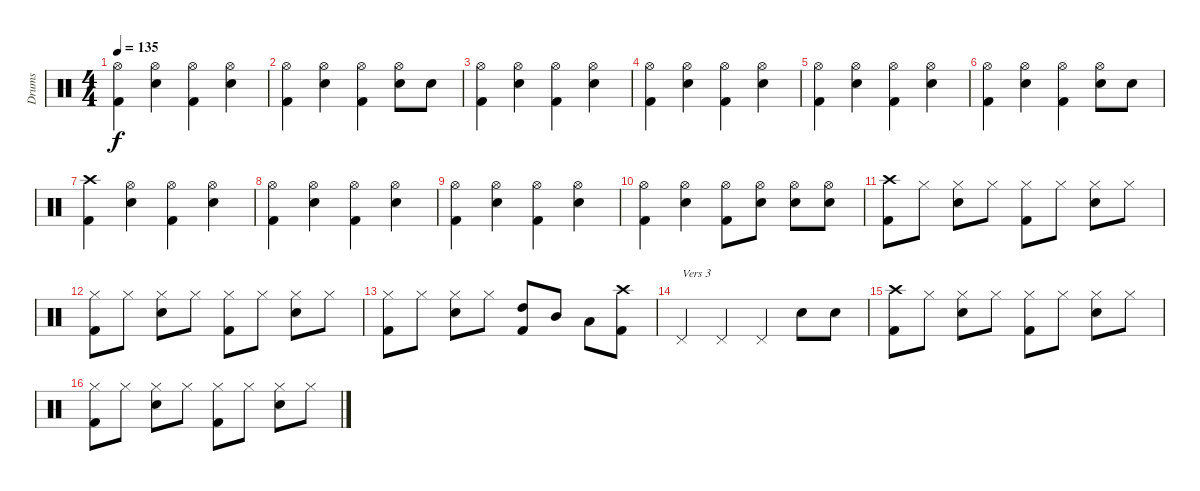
\track ("Drums" "Drums") {instrument percussion}
\staff {score}
\articulation defaults
\ts (4 4)
\tempo 135
\clef neutral
\ks c
("Hi-Hat (open)" "Kick (hit) 2").4{dy f} ("Hi-Hat (open)" "Snare (hit) 2").4 ("Hi-Hat (open)" "Kick (hit) 2").4 ("Hi-Hat (open)" "Snare (hit) 2").4 |
("Hi-Hat (open)" "Kick (hit) 2").4 ("Hi-Hat (open)" "Snare (hit) 2").4 ("Hi-Hat (open)" "Kick (hit) 2").4 ("Hi-Hat (open)" "Snare (hit) 2").8 "Snare (hit) 2".8 |
("Hi-Hat (open)" "Kick (hit) 2").4 ("Hi-Hat (open)" "Snare (hit) 2").4 ("Hi-Hat (open)" "Kick (hit) 2").4 ("Hi-Hat (open)" "Snare (hit) 2").4 |
("Hi-Hat (open)" "Kick (hit) 2").4 ("Hi-Hat (open)" "Snare (hit) 2").4 ("Hi-Hat (open)" "Kick (hit) 2").4 ("Hi-Hat (open)" "Snare (hit) 2").4 |
("Hi-Hat (open)" "Kick (hit) 2").4 ("Hi-Hat (open)" "Snare (hit) 2").4 ("Hi-Hat (open)" "Kick (hit) 2").4 ("Hi-Hat (open)" "Snare (hit) 2").4 |
("Hi-Hat (open)" "Kick (hit) 2").4 ("Hi-Hat (open)" "Snare (hit) 2").4 ("Hi-Hat (open)" "Kick (hit) 2").4 ("Hi-Hat (open)" "Snare (hit) 2").8 "Snare (hit) 2".8 |
("Crash high (hit)" "Kick (hit) 2").4 ("Hi-Hat (open)" "Snare (hit) 2").4 ("Hi-Hat (open)" "Kick (hit) 2").4 ("Hi-Hat (open)" "Snare (hit) 2").4 |
("Hi-Hat (open)" "Kick (hit) 2").4 ("Hi-Hat (open)" "Snare (hit) 2").4 ("Hi-Hat (open)" "Kick (hit) 2").4 ("Hi-Hat (open)" "Snare (hit) 2").4 |
("Hi-Hat (open)" "Kick (hit) 2").4 ("Hi-Hat (open)" "Snare (hit) 2").4 ("Hi-Hat (open)" "Kick (hit) 2").4 ("Hi-Hat (open)" "Snare (hit) 2").4 |
("Hi-Hat (open)" "Kick (hit) 2").4 ("Hi-Hat (open)" "Snare (hit) 2").4 ("Hi-Hat (open)" "Kick (hit) 2").8 ("Hi-Hat (open)" "Snare (hit) 2").8 ("Hi-Hat (open)" "Snare (hit) 2").8 ("Hi-Hat (open)" "Snare (hit) 2").8 |
("Crash high (hit)" "Kick (hit) 2").8 "Hi-Hat (closed)".8 ("Hi-Hat (closed)" "Snare (hit) 2").8 "Hi-Hat (closed)".8 ("Hi-Hat (closed)" "Kick (hit) 2").8 "Hi-Hat (closed)".8 ("Hi-Hat (closed)" "Snare (hit) 2").8 "Hi-Hat (closed)".8 |
("Hi-Hat (closed)" "Kick (hit) 2").8 "Hi-Hat (closed)".8 ("Hi-Hat (closed)" "Snare (hit) 2").8 "Hi-Hat (closed)".8 ("Hi-Hat (closed)" "Kick (hit) 2").8 "Hi-Hat (closed)".8 ("Hi-Hat (closed)" "Snare (hit) 2").8 "Hi-Hat (closed)".8 |
("Hi-Hat (closed)" "Kick (hit) 2").8 "Hi-Hat (closed)".8 ("Hi-Hat (closed)" "Snare (hit) 2").8 "Hi-Hat (closed)".8 ("High Tom (hit)" "Kick (hit) 2").8 "Mid Tom (hit)".8 "Low Tom (hit)".8 ("Crash high (hit)" "Kick (hit) 2").8 |
"Pedal Hi-Hat (hit)".4{txt "Vers 3"} "Pedal Hi-Hat (hit)".4 "Pedal Hi-Hat (hit)".4 "Snare (hit) 2".8 "Snare (hit) 2".8 |
("Crash high (hit)" "Kick (hit) 2").8 "Hi-Hat (closed)".8 ("Hi-Hat (closed)" "Snare (hit) 2").8 "Hi-Hat (closed)".8 ("Hi-Hat (closed)" "Kick (hit) 2").8 "Hi-Hat (closed)".8 ("Hi-Hat (closed)" "Snare (hit) 2").8 "Hi-Hat (closed)".8 |
("Hi-Hat (closed)" "Kick (hit) 2").8 "Hi-Hat (closed)".8 ("Hi-Hat (closed)" "Snare (hit) 2").8 "Hi-Hat (closed)".8 ("Hi-Hat (closed)" "Kick (hit) 2").8 "Hi-Hat (closed)".8 ("Hi-Hat (closed)" "Snare (hit) 2").8 "Hi-Hat (closed)".8
